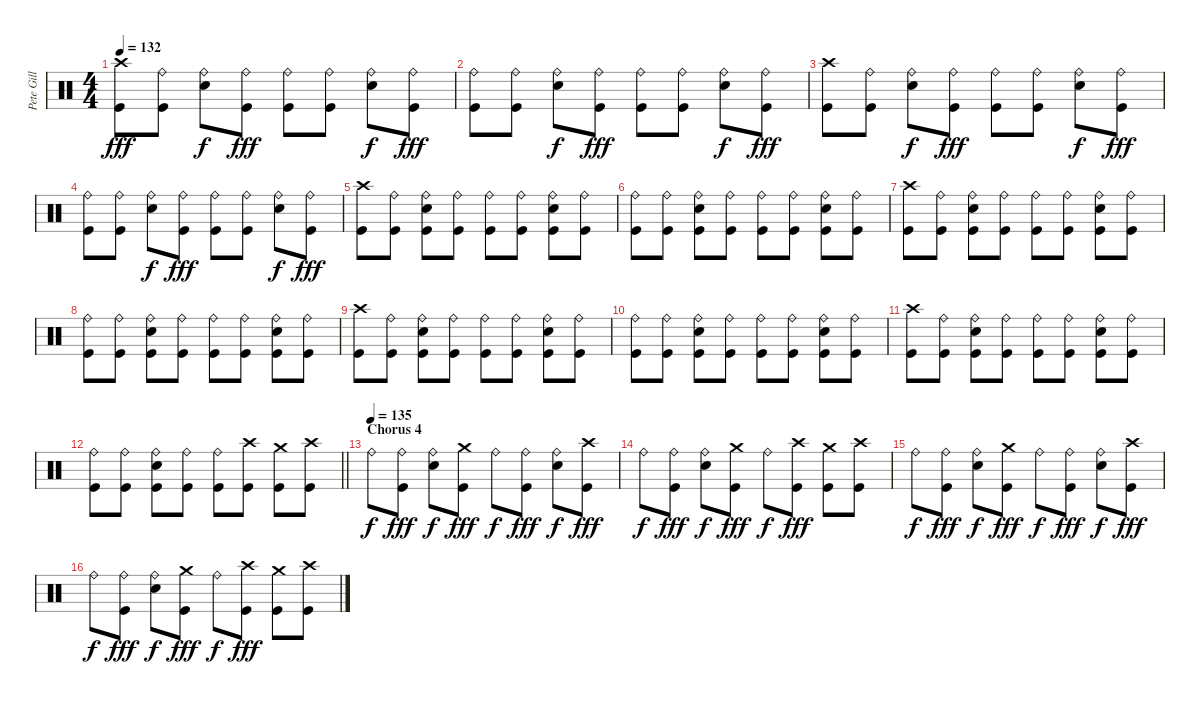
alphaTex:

\track ("Pete Gill" "Pete Gill") {instrument percussion}
\staff {score}
\articulation defaults
\ts (4 4)
\tempo 132
\clef neutral
\ks c
("Crash high (hit)" "Kick (hit)").8{dy fff} ("Ride (bell)" "Kick (hit)").8 ("Ride (bell)" "Electric Snare (hit)").8{dy f} ("Ride (bell)" "Kick (hit)").8{dy fff} ("Ride (bell)" "Kick (hit)").8 ("Ride (bell)" "Kick (hit)").8 ("Ride (bell)" "Electric Snare (hit)").8{dy f} ("Ride (bell)" "Kick (hit)").8{dy fff} |
("Ride (bell)" "Kick (hit)").8 ("Ride (bell)" "Kick (hit)").8 ("Ride (bell)" "Electric Snare (hit)").8{dy f} ("Ride (bell)" "Kick (hit)").8{dy fff} ("Ride (bell)" "Kick (hit)").8 ("Ride (bell)" "Kick (hit)").8 ("Ride (bell)" "Electric Snare (hit)").8{dy f} ("Ride (bell)" "Kick (hit)").8{dy fff} |
("Crash high (hit)" "Kick (hit)").8 ("Ride (bell)" "Kick (hit)").8 ("Ride (bell)" "Electric Snare (hit)").8{dy f} ("Ride (bell)" "Kick (hit)").8{dy fff} ("Ride (bell)" "Kick (hit)").8 ("Ride (bell)" "Kick (hit)").8 ("Ride (bell)" "Electric Snare (hit)").8{dy f} ("Ride (bell)" "Kick (hit)").8{dy fff} |
("Ride (bell)" "Kick (hit)").8 ("Ride (bell)" "Kick (hit)").8 ("Ride (bell)" "Electric Snare (hit)").8{dy f} ("Ride (bell)" "Kick (hit)").8{dy fff} ("Ride (bell)" "Kick (hit)").8 ("Ride (bell)" "Kick (hit)").8 ("Ride (bell)" "Electric Snare (hit)").8{dy f} ("Ride (bell)" "Kick (hit)").8{dy fff} |
("Crash high (hit)" "Kick (hit)").8 ("Ride (bell)" "Kick (hit)").8 ("Ride (bell)" "Electric Snare (hit)" "Kick (hit)").8 ("Ride (bell)" "Kick (hit)").8 ("Ride (bell)" "Kick (hit)").8 ("Ride (bell)" "Kick (hit)").8 ("Ride (bell)" "Electric Snare (hit)" "Kick (hit)").8 ("Ride (bell)" "Kick (hit)").8 |
("Ride (bell)" "Kick (hit)").8 ("Ride (bell)" "Kick (hit)").8 ("Ride (bell)" "Electric Snare (hit)" "Kick (hit)").8 ("Ride (bell)" "Kick (hit)").8 ("Ride (bell)" "Kick (hit)").8 ("Ride (bell)" "Kick (hit)").8 ("Ride (bell)" "Electric Snare (hit)" "Kick (hit)").8 ("Ride (bell)" "Kick (hit)").8 |
("Crash high (hit)" "Kick (hit)").8 ("Ride (bell)" "Kick (hit)").8 ("Ride (bell)" "Electric Snare (hit)" "Kick (hit)").8 ("Ride (bell)" "Kick (hit)").8 ("Ride (bell)" "Kick (hit)").8 ("Ride (bell)" "Kick (hit)").8 ("Ride (bell)" "Electric Snare (hit)" "Kick (hit)").8 ("Ride (bell)" "Kick (hit)").8 |
("Ride (bell)" "Kick (hit)").8 ("Ride (bell)" "Kick (hit)").8 ("Ride (bell)" "Electric Snare (hit)" "Kick (hit)").8 ("Ride (bell)" "Kick (hit)").8 ("Ride (bell)" "Kick (hit)").8 ("Ride (bell)" "Kick (hit)").8 ("Ride (bell)" "Electric Snare (hit)" "Kick (hit)").8 ("Ride (bell)" "Kick (hit)").8 |
("Crash high (hit)" "Kick (hit)").8 ("Ride (bell)" "Kick (hit)").8 ("Ride (bell)" "Electric Snare (hit)" "Kick (hit)").8 ("Ride (bell)" "Kick (hit)").8 ("Ride (bell)" "Kick (hit)").8 ("Ride (bell)" "Kick (hit)").8 ("Ride (bell)" "Electric Snare (hit)" "Kick (hit)").8 ("Ride (bell)" "Kick (hit)").8 |
("Ride (bell)" "Kick (hit)").8 ("Ride (bell)" "Kick (hit)").8 ("Ride (bell)" "Electric Snare (hit)" "Kick (hit)").8 ("Ride (bell)" "Kick (hit)").8 ("Ride (bell)" "Kick (hit)").8 ("Ride (bell)" "Kick (hit)").8 ("Ride (bell)" "Electric Snare (hit)" "Kick (hit)").8 ("Ride (bell)" "Kick (hit)").8 |
("Crash high (hit)" "Kick (hit)").8 ("Ride (bell)" "Kick (hit)").8 ("Ride (bell)" "Electric Snare (hit)" "Kick (hit)").8 ("Ride (bell)" "Kick (hit)").8 ("Ride (bell)" "Kick (hit)").8 ("Ride (bell)" "Kick (hit)").8 ("Ride (bell)" "Electric Snare (hit)" "Kick (hit)").8 ("Ride (bell)" "Kick (hit)").8 |
\barLineRight lightlight
("Ride (bell)" "Kick (hit)").8 ("Ride (bell)" "Kick (hit)").8 ("Ride (bell)" "Electric Snare (hit)" "Kick (hit)").8 ("Ride (bell)" "Kick (hit)").8 ("Ride (bell)" "Kick (hit)").8 ("Crash high (hit)" "Kick (hit)").8 ("Crash medium (hit)" "Kick (hit)").8 ("Crash high (hit)" "Kick (hit)").8 |
\section ("" "Chorus 4")
\tempo (135)
"Ride (bell)".8{dy f} ("Ride (bell)" "Kick (hit)").8{dy fff} ("Ride (bell)" "Electric Snare (hit)").8{dy f} ("Crash medium (hit)" "Kick (hit)").8{dy fff} "Ride (bell)".8{dy f} ("Ride (bell)" "Kick (hit)").8{dy fff} ("Ride (bell)" "Electric Snare (hit)").8{dy f} ("Crash high (hit)" "Kick (hit)").8{dy fff} |
"Ride (bell)".8{dy f} ("Ride (bell)" "Kick (hit)").8{dy fff} ("Ride (bell)" "Electric Snare (hit)").8{dy f} ("Crash medium (hit)" "Kick (hit)").8{dy fff} "Ride (bell)".8{dy f} ("Crash high (hit)" "Kick (hit)").8{dy fff} ("Crash medium (hit)" "Kick (hit)").8 ("Crash high (hit)" "Kick (hit)").8 |
"Ride (bell)".8{dy f} ("Ride (bell)" "Kick (hit)").8{dy fff} ("Ride (bell)" "Electric Snare (hit)").8{dy f} ("Crash medium (hit)" "Kick (hit)").8{dy fff} "Ride (bell)".8{dy f} ("Ride (bell)" "Kick (hit)").8{dy fff} ("Ride (bell)" "Electric Snare (hit)").8{dy f} ("Crash high (hit)" "Kick (hit)").8{dy fff} |
"Ride (bell)".8{dy f} ("Ride (bell)" "Kick (hit)").8{dy fff} ("Ride (bell)" "Electric Snare (hit)").8{dy f} ("Crash medium (hit)" "Kick (hit)").8{dy fff} "Ride (bell)".8{dy f} ("Crash high (hit)" "Kick (hit)").8{dy fff} ("Crash medium (hit)" "Kick (hit)").8 ("Crash high (hit)" "Kick (hit)").8
